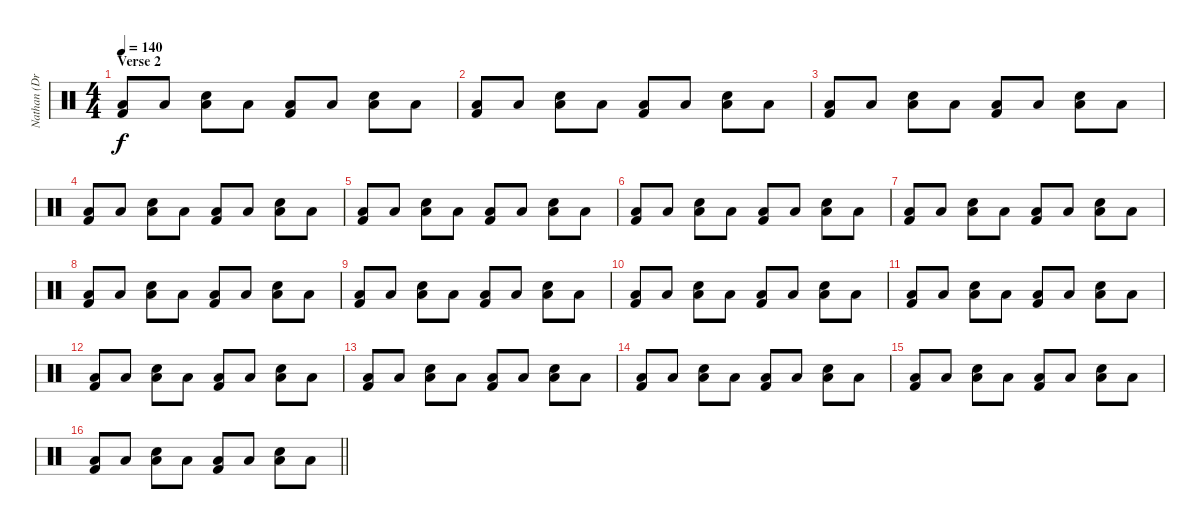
\track ("Nathan (Drums)" "Nathan (Dr") {instrument percussion}
\staff {score}
\articulation defaults
\ts (4 4)
\section ("" "Verse 2")
\tempo 140
\clef neutral
\ks c
("Low Floor Tom (hit)" "Kick (hit) 2").8{dy f} "Low Floor Tom (hit)".8 ("Low Floor Tom (hit)" "Electric Snare (hit)").8 "Low Floor Tom (hit)".8 ("Low Floor Tom (hit)" "Kick (hit) 2").8 "Low Floor Tom (hit)".8 ("Low Floor Tom (hit)" "Electric Snare (hit)").8 "Low Floor Tom (hit)".8 |
("Low Floor Tom (hit)" "Kick (hit) 2").8 "Low Floor Tom (hit)".8 ("Low Floor Tom (hit)" "Electric Snare (hit)").8 "Low Floor Tom (hit)".8 ("Low Floor Tom (hit)" "Kick (hit) 2").8 "Low Floor Tom (hit)".8 ("Low Floor Tom (hit)" "Electric Snare (hit)").8 "Low Floor Tom (hit)".8 |
("Low Floor Tom (hit)" "Kick (hit) 2").8 "Low Floor Tom (hit)".8 ("Low Floor Tom (hit)" "Electric Snare (hit)").8 "Low Floor Tom (hit)".8 ("Low Floor Tom (hit)" "Kick (hit) 2").8 "Low Floor Tom (hit)".8 ("Low Floor Tom (hit)" "Electric Snare (hit)").8 "Low Floor Tom (hit)".8 |
("Low Floor Tom (hit)" "Kick (hit) 2").8 "Low Floor Tom (hit)".8 ("Low Floor Tom (hit)" "Electric Snare (hit)").8 "Low Floor Tom (hit)".8 ("Low Floor Tom (hit)" "Kick (hit) 2").8 "Low Floor Tom (hit)".8 ("Low Floor Tom (hit)" "Electric Snare (hit)").8 "Low Floor Tom (hit)".8 |
("Low Floor Tom (hit)" "Kick (hit) 2").8 "Low Floor Tom (hit)".8 ("Low Floor Tom (hit)" "Electric Snare (hit)").8 "Low Floor Tom (hit)".8 ("Low Floor Tom (hit)" "Kick (hit) 2").8 "Low Floor Tom (hit)".8 ("Low Floor Tom (hit)" "Electric Snare (hit)").8 "Low Floor Tom (hit)".8 |
("Low Floor Tom (hit)" "Kick (hit) 2").8 "Low Floor Tom (hit)".8 ("Low Floor Tom (hit)" "Electric Snare (hit)").8 "Low Floor Tom (hit)".8 ("Low Floor Tom (hit)" "Kick (hit) 2").8 "Low Floor Tom (hit)".8 ("Low Floor Tom (hit)" "Electric Snare (hit)").8 "Low Floor Tom (hit)".8 |
("Low Floor Tom (hit)" "Kick (hit) 2").8 "Low Floor Tom (hit)".8 ("Low Floor Tom (hit)" "Electric Snare (hit)").8 "Low Floor Tom (hit)".8 ("Low Floor Tom (hit)" "Kick (hit) 2").8 "Low Floor Tom (hit)".8 ("Low Floor Tom (hit)" "Electric Snare (hit)").8 "Low Floor Tom (hit)".8 |
("Low Floor Tom (hit)" "Kick (hit) 2").8 "Low Floor Tom (hit)".8 ("Low Floor Tom (hit)" "Electric Snare (hit)").8 "Low Floor Tom (hit)".8 ("Low Floor Tom (hit)" "Kick (hit) 2").8 "Low Floor Tom (hit)".8 ("Low Floor Tom (hit)" "Electric Snare (hit)").8 "Low Floor Tom (hit)".8 |
("Low Floor Tom (hit)" "Kick (hit) 2").8 "Low Floor Tom (hit)".8 ("Low Floor Tom (hit)" "Electric Snare (hit)").8 "Low Floor Tom (hit)".8 ("Low Floor Tom (hit)" "Kick (hit) 2").8 "Low Floor Tom (hit)".8 ("Low Floor Tom (hit)" "Electric Snare (hit)").8 "Low Floor Tom (hit)".8 |
("Low Floor Tom (hit)" "Kick (hit) 2").8 "Low Floor Tom (hit)".8 ("Low Floor Tom (hit)" "Electric Snare (hit)").8 "Low Floor Tom (hit)".8 ("Low Floor Tom (hit)" "Kick (hit) 2").8 "Low Floor Tom (hit)".8 ("Low Floor Tom (hit)" "Electric Snare (hit)").8 "Low Floor Tom (hit)".8 |
("Low Floor Tom (hit)" "Kick (hit) 2").8 "Low Floor Tom (hit)".8 ("Low Floor Tom (hit)" "Electric Snare (hit)").8 "Low Floor Tom (hit)".8 ("Low Floor Tom (hit)" "Kick (hit) 2").8 "Low Floor Tom (hit)".8 ("Low Floor Tom (hit)" "Electric Snare (hit)").8 "Low Floor Tom (hit)".8 |
("Low Floor Tom (hit)" "Kick (hit) 2").8 "Low Floor Tom (hit)".8 ("Low Floor Tom (hit)" "Electric Snare (hit)").8 "Low Floor Tom (hit)".8 ("Low Floor Tom (hit)" "Kick (hit) 2").8 "Low Floor Tom (hit)".8 ("Low Floor Tom (hit)" "Electric Snare (hit)").8 "Low Floor Tom (hit)".8 |
("Low Floor Tom (hit)" "Kick (hit) 2").8 "Low Floor Tom (hit)".8 ("Low Floor Tom (hit)" "Electric Snare (hit)").8 "Low Floor Tom (hit)".8 ("Low Floor Tom (hit)" "Kick (hit) 2").8 "Low Floor Tom (hit)".8 ("Low Floor Tom (hit)" "Electric Snare (hit)").8 "Low Floor Tom (hit)".8 |
("Low Floor Tom (hit)" "Kick (hit) 2").8 "Low Floor Tom (hit)".8 ("Low Floor Tom (hit)" "Electric Snare (hit)").8 "Low Floor Tom (hit)".8 ("Low Floor Tom (hit)" "Kick (hit) 2").8 "Low Floor Tom (hit)".8 ("Low Floor Tom (hit)" "Electric Snare (hit)").8 "Low Floor Tom (hit)".8 |
("Low Floor Tom (hit)" "Kick (hit) 2").8 "Low Floor Tom (hit)".8 ("Low Floor Tom (hit)" "Electric Snare (hit)").8 "Low Floor Tom (hit)".8 ("Low Floor Tom (hit)" "Kick (hit) 2").8 "Low Floor Tom (hit)".8 ("Low Floor Tom (hit)" "Electric Snare (hit)").8 "Low Floor Tom (hit)".8 |
\barLineRight lightlight
("Low Floor Tom (hit)" "Kick (hit) 2").8 "Low Floor Tom (hit)".8 ("Low Floor Tom (hit)" "Electric Snare (hit)").8 "Low Floor Tom (hit)".8 ("Low Floor Tom (hit)" "Kick (hit) 2").8 "Low Floor Tom (hit)".8 ("Low Floor Tom (hit)" "Electric Snare (hit)").8 "Low Floor Tom (hit)".8
